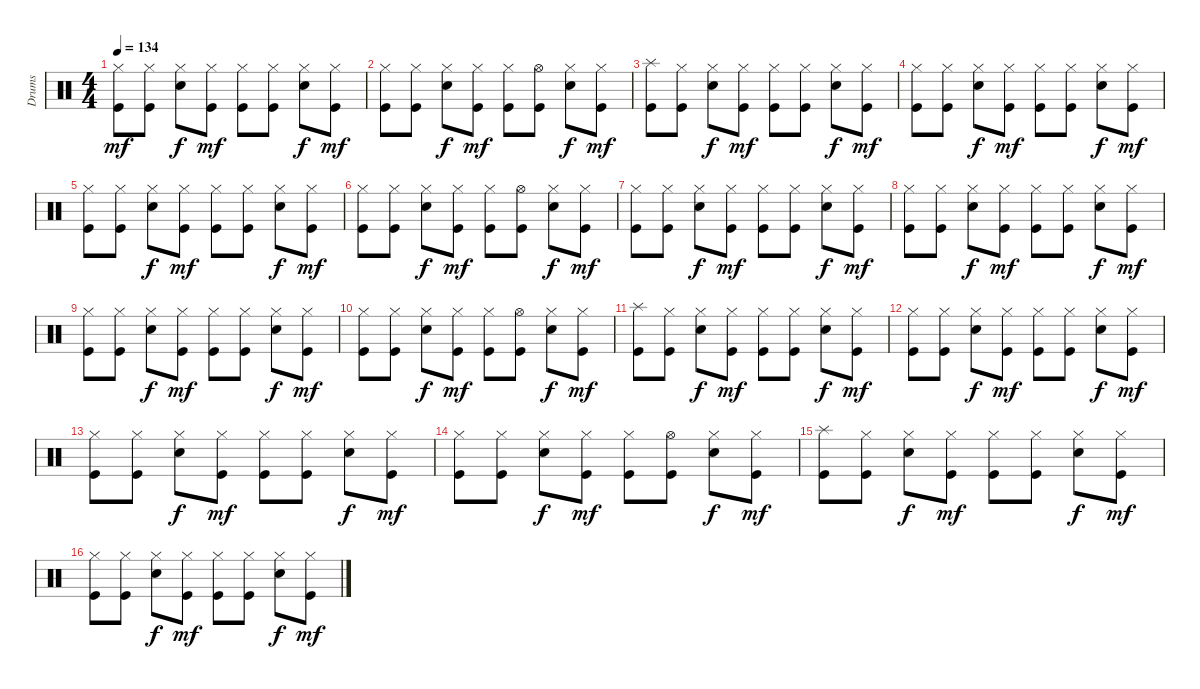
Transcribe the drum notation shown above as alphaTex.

\track ("Drums" "Drums") {instrument percussion}
\staff {score}
\articulation defaults
\ts (4 4)
\tempo 134
\clef neutral
\ks c
("Hi-Hat (closed)" "Kick (hit)").8{dy mf} ("Hi-Hat (closed)" "Kick (hit)").8 ("Hi-Hat (closed)" "Snare (hit) 2").8{dy f} ("Hi-Hat (closed)" "Kick (hit)").8{dy mf} ("Hi-Hat (closed)" "Kick (hit)").8 ("Hi-Hat (closed)" "Kick (hit)").8 ("Hi-Hat (closed)" "Snare (hit) 2").8{dy f} ("Hi-Hat (closed)" "Kick (hit)").8{dy mf} |
("Hi-Hat (closed)" "Kick (hit)").8 ("Hi-Hat (closed)" "Kick (hit)").8 ("Hi-Hat (closed)" "Snare (hit) 2").8{dy f} ("Hi-Hat (closed)" "Kick (hit)").8{dy mf} ("Hi-Hat (closed)" "Kick (hit)").8 ("Hi-Hat (open)" "Kick (hit)").8 ("Hi-Hat (closed)" "Snare (hit) 2").8{dy f} ("Hi-Hat (closed)" "Kick (hit)").8{dy mf} |
("Splash (hit)" "Kick (hit)").8 ("Hi-Hat (closed)" "Kick (hit)").8 ("Hi-Hat (closed)" "Snare (hit) 2").8{dy f} ("Hi-Hat (closed)" "Kick (hit)").8{dy mf} ("Hi-Hat (closed)" "Kick (hit)").8 ("Hi-Hat (closed)" "Kick (hit)").8 ("Hi-Hat (closed)" "Snare (hit) 2").8{dy f} ("Hi-Hat (closed)" "Kick (hit)").8{dy mf} |
("Hi-Hat (closed)" "Kick (hit)").8 ("Hi-Hat (closed)" "Kick (hit)").8 ("Hi-Hat (closed)" "Snare (hit) 2").8{dy f} ("Hi-Hat (closed)" "Kick (hit)").8{dy mf} ("Hi-Hat (closed)" "Kick (hit)").8 ("Hi-Hat (closed)" "Kick (hit)").8 ("Hi-Hat (closed)" "Snare (hit) 2").8{dy f} ("Hi-Hat (closed)" "Kick (hit)").8{dy mf} |
("Hi-Hat (closed)" "Kick (hit)").8 ("Hi-Hat (closed)" "Kick (hit)").8 ("Hi-Hat (closed)" "Snare (hit) 2").8{dy f} ("Hi-Hat (closed)" "Kick (hit)").8{dy mf} ("Hi-Hat (closed)" "Kick (hit)").8 ("Hi-Hat (closed)" "Kick (hit)").8 ("Hi-Hat (closed)" "Snare (hit) 2").8{dy f} ("Hi-Hat (closed)" "Kick (hit)").8{dy mf} |
("Hi-Hat (closed)" "Kick (hit)").8 ("Hi-Hat (closed)" "Kick (hit)").8 ("Hi-Hat (closed)" "Snare (hit) 2").8{dy f} ("Hi-Hat (closed)" "Kick (hit)").8{dy mf} ("Hi-Hat (closed)" "Kick (hit)").8 ("Hi-Hat (open)" "Kick (hit)").8 ("Hi-Hat (closed)" "Snare (hit) 2").8{dy f} ("Hi-Hat (closed)" "Kick (hit)").8{dy mf} |
("Hi-Hat (closed)" "Kick (hit)").8 ("Hi-Hat (closed)" "Kick (hit)").8 ("Hi-Hat (closed)" "Snare (hit) 2").8{dy f} ("Hi-Hat (closed)" "Kick (hit)").8{dy mf} ("Hi-Hat (closed)" "Kick (hit)").8 ("Hi-Hat (closed)" "Kick (hit)").8 ("Hi-Hat (closed)" "Snare (hit) 2").8{dy f} ("Hi-Hat (closed)" "Kick (hit)").8{dy mf} |
("Hi-Hat (closed)" "Kick (hit)").8 ("Hi-Hat (closed)" "Kick (hit)").8 ("Hi-Hat (closed)" "Snare (hit) 2").8{dy f} ("Hi-Hat (closed)" "Kick (hit)").8{dy mf} ("Hi-Hat (closed)" "Kick (hit)").8 ("Hi-Hat (closed)" "Kick (hit)").8 ("Hi-Hat (closed)" "Snare (hit) 2").8{dy f} ("Hi-Hat (closed)" "Kick (hit)").8{dy mf} |
("Hi-Hat (closed)" "Kick (hit)").8 ("Hi-Hat (closed)" "Kick (hit)").8 ("Hi-Hat (closed)" "Snare (hit) 2").8{dy f} ("Hi-Hat (closed)" "Kick (hit)").8{dy mf} ("Hi-Hat (closed)" "Kick (hit)").8 ("Hi-Hat (closed)" "Kick (hit)").8 ("Hi-Hat (closed)" "Snare (hit) 2").8{dy f} ("Hi-Hat (closed)" "Kick (hit)").8{dy mf} |
("Hi-Hat (closed)" "Kick (hit)").8 ("Hi-Hat (closed)" "Kick (hit)").8 ("Hi-Hat (closed)" "Snare (hit) 2").8{dy f} ("Hi-Hat (closed)" "Kick (hit)").8{dy mf} ("Hi-Hat (closed)" "Kick (hit)").8 ("Hi-Hat (open)" "Kick (hit)").8 ("Hi-Hat (closed)" "Snare (hit) 2").8{dy f} ("Hi-Hat (closed)" "Kick (hit)").8{dy mf} |
("Splash (hit)" "Kick (hit)").8 ("Hi-Hat (closed)" "Kick (hit)").8 ("Hi-Hat (closed)" "Snare (hit) 2").8{dy f} ("Hi-Hat (closed)" "Kick (hit)").8{dy mf} ("Hi-Hat (closed)" "Kick (hit)").8 ("Hi-Hat (closed)" "Kick (hit)").8 ("Hi-Hat (closed)" "Snare (hit) 2").8{dy f} ("Hi-Hat (closed)" "Kick (hit)").8{dy mf} |
("Hi-Hat (closed)" "Kick (hit)").8 ("Hi-Hat (closed)" "Kick (hit)").8 ("Hi-Hat (closed)" "Snare (hit) 2").8{dy f} ("Hi-Hat (closed)" "Kick (hit)").8{dy mf} ("Hi-Hat (closed)" "Kick (hit)").8 ("Hi-Hat (closed)" "Kick (hit)").8 ("Hi-Hat (closed)" "Snare (hit) 2").8{dy f} ("Hi-Hat (closed)" "Kick (hit)").8{dy mf} |
("Hi-Hat (closed)" "Kick (hit)").8 ("Hi-Hat (closed)" "Kick (hit)").8 ("Hi-Hat (closed)" "Snare (hit) 2").8{dy f} ("Hi-Hat (closed)" "Kick (hit)").8{dy mf} ("Hi-Hat (closed)" "Kick (hit)").8 ("Hi-Hat (closed)" "Kick (hit)").8 ("Hi-Hat (closed)" "Snare (hit) 2").8{dy f} ("Hi-Hat (closed)" "Kick (hit)").8{dy mf} |
("Hi-Hat (closed)" "Kick (hit)").8 ("Hi-Hat (closed)" "Kick (hit)").8 ("Hi-Hat (closed)" "Snare (hit) 2").8{dy f} ("Hi-Hat (closed)" "Kick (hit)").8{dy mf} ("Hi-Hat (closed)" "Kick (hit)").8 ("Hi-Hat (open)" "Kick (hit)").8 ("Hi-Hat (closed)" "Snare (hit) 2").8{dy f} ("Hi-Hat (closed)" "Kick (hit)").8{dy mf} |
("Splash (hit)" "Kick (hit)").8 ("Hi-Hat (closed)" "Kick (hit)").8 ("Hi-Hat (closed)" "Snare (hit) 2").8{dy f} ("Hi-Hat (closed)" "Kick (hit)").8{dy mf} ("Hi-Hat (closed)" "Kick (hit)").8 ("Hi-Hat (closed)" "Kick (hit)").8 ("Hi-Hat (closed)" "Snare (hit) 2").8{dy f} ("Hi-Hat (closed)" "Kick (hit)").8{dy mf} |
("Hi-Hat (closed)" "Kick (hit)").8 ("Hi-Hat (closed)" "Kick (hit)").8 ("Hi-Hat (closed)" "Snare (hit) 2").8{dy f} ("Hi-Hat (closed)" "Kick (hit)").8{dy mf} ("Hi-Hat (closed)" "Kick (hit)").8 ("Hi-Hat (closed)" "Kick (hit)").8 ("Hi-Hat (closed)" "Snare (hit) 2").8{dy f} ("Hi-Hat (closed)" "Kick (hit)").8{dy mf}
